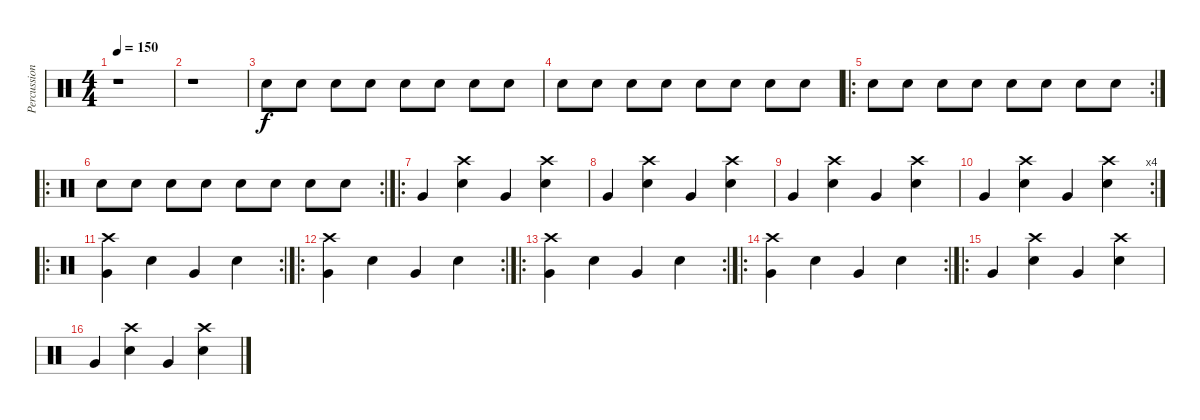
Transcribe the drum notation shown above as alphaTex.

\track ("Percussions" "Percussion") {instrument percussion}
\staff {score}
\articulation defaults
\ts (4 4)
\tempo 150
\clef neutral
\ks c
r.1{dy f} |
r.1 |
"Snare (hit) 2".8 "Snare (hit) 2".8 "Snare (hit) 2".8 "Snare (hit) 2".8 "Snare (hit) 2".8 "Snare (hit) 2".8 "Snare (hit) 2".8 "Snare (hit) 2".8 |
"Snare (hit) 2".8 "Snare (hit) 2".8 "Snare (hit) 2".8 "Snare (hit) 2".8 "Snare (hit) 2".8 "Snare (hit) 2".8 "Snare (hit) 2".8 "Snare (hit) 2".8 |
\ro
\rc 2 "Snare (hit) 2".8 "Snare (hit) 2".8 "Snare (hit) 2".8 "Snare (hit) 2".8 "Snare (hit) 2".8 "Snare (hit) 2".8 "Snare (hit) 2".8 "Snare (hit) 2".8
|
\ro
\rc 2 "Snare (hit) 2".8 "Snare (hit) 2".8 "Snare (hit) 2".8 "Snare (hit) 2".8 "Snare (hit) 2".8 "Snare (hit) 2".8 "Snare (hit) 2".8 "Snare (hit) 2".8
|
\ro "Very Low Tom (hit)".4
("Crash high (hit)" "Snare (hit) 2").4 "Very Low Tom (hit)".4 ("Crash high (hit)" "Snare (hit) 2").4 |
"Very Low Tom (hit)".4 ("Crash high (hit)" "Snare (hit) 2").4 "Very Low Tom (hit)".4 ("Crash high (hit)" "Snare (hit) 2").4 |
"Very Low Tom (hit)".4 ("Crash high (hit)" "Snare (hit) 2").4 "Very Low Tom (hit)".4 ("Crash high (hit)" "Snare (hit) 2").4 |
\rc 4 "Very Low Tom (hit)".4
("Crash high (hit)" "Snare (hit) 2").4 "Very Low Tom (hit)".4 ("Crash high (hit)" "Snare (hit) 2").4 |
\ro
\rc 2
("Very Low Tom (hit)" "Crash high (hit)").4 "Snare (hit) 2".4 "Very Low Tom (hit)".4 "Snare (hit) 2".4 |
\ro
\rc 2
("Very Low Tom (hit)" "Crash high (hit)").4 "Snare (hit) 2".4 "Very Low Tom (hit)".4 "Snare (hit) 2".4 |
\ro
\rc 2
("Very Low Tom (hit)" "Crash high (hit)").4 "Snare (hit) 2".4 "Very Low Tom (hit)".4 "Snare (hit) 2".4 |
\ro
\rc 2
("Very Low Tom (hit)" "Crash high (hit)").4 "Snare (hit) 2".4 "Very Low Tom (hit)".4 "Snare (hit) 2".4 |
\ro "Very Low Tom (hit)".4
("Crash high (hit)" "Snare (hit) 2").4 "Very Low Tom (hit)".4 ("Crash high (hit)" "Snare (hit) 2").4 |
"Very Low Tom (hit)".4 ("Crash high (hit)" "Snare (hit) 2").4 "Very Low Tom (hit)".4 ("Crash high (hit)" "Snare (hit) 2").4
